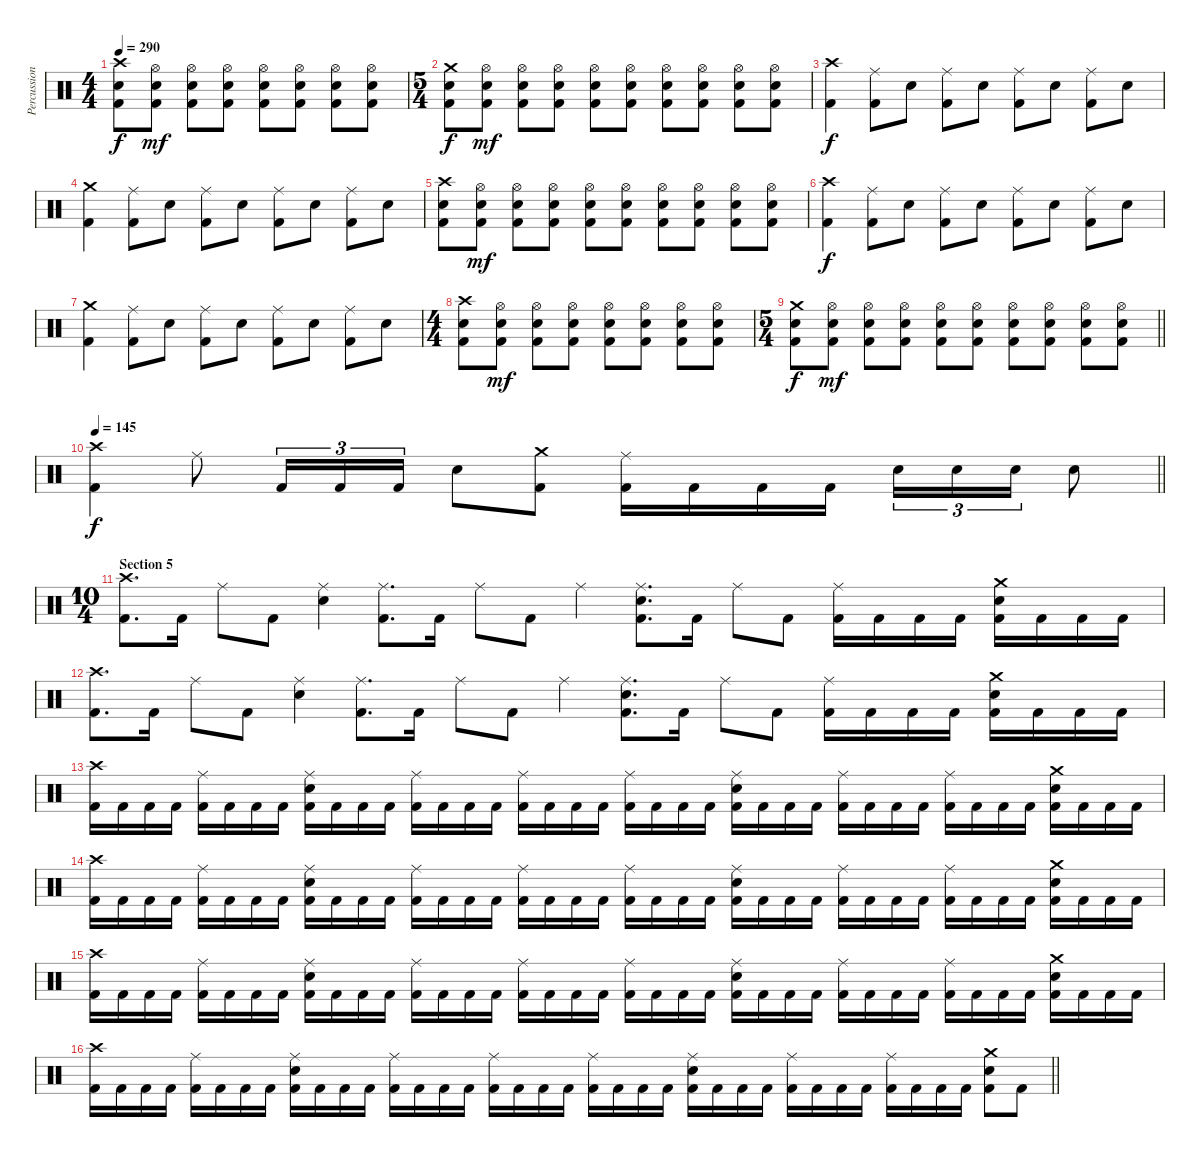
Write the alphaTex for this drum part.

\track ("Percussion" "Percussion") {instrument percussion}
\staff {score}
\articulation defaults
\ts (4 4)
\tempo 290
\clef neutral
\ks c
("Crash high (hit)" "Electric Snare (hit)" "Kick (hit) 2").8{dy f} ("Hi-Hat (open)" "Electric Snare (hit)" "Kick (hit) 2").8{dy mf} ("Hi-Hat (open)" "Electric Snare (hit)" "Kick (hit) 2").8 ("Hi-Hat (open)" "Electric Snare (hit)" "Kick (hit) 2").8 ("Hi-Hat (open)" "Electric Snare (hit)" "Kick (hit) 2").8 ("Hi-Hat (open)" "Electric Snare (hit)" "Kick (hit) 2").8 ("Hi-Hat (open)" "Electric Snare (hit)" "Kick (hit) 2").8 ("Hi-Hat (open)" "Electric Snare (hit)" "Kick (hit) 2").8 |
\ts (5 4)
("Crash medium (hit)" "Electric Snare (hit)" "Kick (hit) 2").8{dy f} ("Hi-Hat (open)" "Electric Snare (hit)" "Kick (hit) 2").8{dy mf} ("Hi-Hat (open)" "Electric Snare (hit)" "Kick (hit) 2").8 ("Hi-Hat (open)" "Electric Snare (hit)" "Kick (hit) 2").8 ("Hi-Hat (open)" "Electric Snare (hit)" "Kick (hit) 2").8 ("Hi-Hat (open)" "Electric Snare (hit)" "Kick (hit) 2").8 ("Hi-Hat (open)" "Electric Snare (hit)" "Kick (hit) 2").8 ("Hi-Hat (open)" "Electric Snare (hit)" "Kick (hit) 2").8 ("Hi-Hat (open)" "Electric Snare (hit)" "Kick (hit) 2").8 ("Hi-Hat (open)" "Electric Snare (hit)" "Kick (hit) 2").8 |
("Crash high (hit)" "Kick (hit) 2").4{dy f} ("Ride (middle)" "Kick (hit) 2").8 "Electric Snare (hit)".8 ("Ride (middle)" "Kick (hit) 2").8 "Electric Snare (hit)".8 ("Ride (middle)" "Kick (hit) 2").8 "Electric Snare (hit)".8 ("Ride (middle)" "Kick (hit) 2").8 "Electric Snare (hit)".8 |
("Crash medium (hit)" "Kick (hit) 2").4 ("Ride (middle)" "Kick (hit) 2").8 "Electric Snare (hit)".8 ("Ride (middle)" "Kick (hit) 2").8 "Electric Snare (hit)".8 ("Ride (middle)" "Kick (hit) 2").8 "Electric Snare (hit)".8 ("Ride (middle)" "Kick (hit) 2").8 "Electric Snare (hit)".8 |
("Crash high (hit)" "Electric Snare (hit)" "Kick (hit) 2").8 ("Hi-Hat (open)" "Electric Snare (hit)" "Kick (hit) 2").8{dy mf} ("Hi-Hat (open)" "Electric Snare (hit)" "Kick (hit) 2").8 ("Hi-Hat (open)" "Electric Snare (hit)" "Kick (hit) 2").8 ("Hi-Hat (open)" "Electric Snare (hit)" "Kick (hit) 2").8 ("Hi-Hat (open)" "Electric Snare (hit)" "Kick (hit) 2").8 ("Hi-Hat (open)" "Electric Snare (hit)" "Kick (hit) 2").8 ("Hi-Hat (open)" "Electric Snare (hit)" "Kick (hit) 2").8 ("Hi-Hat (open)" "Electric Snare (hit)" "Kick (hit) 2").8 ("Hi-Hat (open)" "Electric Snare (hit)" "Kick (hit) 2").8 |
("Crash high (hit)" "Kick (hit) 2").4{dy f} ("Ride (middle)" "Kick (hit) 2").8 "Electric Snare (hit)".8 ("Ride (middle)" "Kick (hit) 2").8 "Electric Snare (hit)".8 ("Ride (middle)" "Kick (hit) 2").8 "Electric Snare (hit)".8 ("Ride (middle)" "Kick (hit) 2").8 "Electric Snare (hit)".8 |
("Crash medium (hit)" "Kick (hit) 2").4 ("Ride (middle)" "Kick (hit) 2").8 "Electric Snare (hit)".8 ("Ride (middle)" "Kick (hit) 2").8 "Electric Snare (hit)".8 ("Ride (middle)" "Kick (hit) 2").8 "Electric Snare (hit)".8 ("Ride (middle)" "Kick (hit) 2").8 "Electric Snare (hit)".8 |
\ts (4 4)
("Crash high (hit)" "Electric Snare (hit)" "Kick (hit) 2").8 ("Hi-Hat (open)" "Electric Snare (hit)" "Kick (hit) 2").8{dy mf} ("Hi-Hat (open)" "Electric Snare (hit)" "Kick (hit) 2").8 ("Hi-Hat (open)" "Electric Snare (hit)" "Kick (hit) 2").8 ("Hi-Hat (open)" "Electric Snare (hit)" "Kick (hit) 2").8 ("Hi-Hat (open)" "Electric Snare (hit)" "Kick (hit) 2").8 ("Hi-Hat (open)" "Electric Snare (hit)" "Kick (hit) 2").8 ("Hi-Hat (open)" "Electric Snare (hit)" "Kick (hit) 2").8 |
\ts (5 4)
\barLineRight lightlight
("Crash medium (hit)" "Electric Snare (hit)" "Kick (hit) 2").8{dy f} ("Hi-Hat (open)" "Electric Snare (hit)" "Kick (hit) 2").8{dy mf} ("Hi-Hat (open)" "Electric Snare (hit)" "Kick (hit) 2").8 ("Hi-Hat (open)" "Electric Snare (hit)" "Kick (hit) 2").8 ("Hi-Hat (open)" "Electric Snare (hit)" "Kick (hit) 2").8 ("Hi-Hat (open)" "Electric Snare (hit)" "Kick (hit) 2").8 ("Hi-Hat (open)" "Electric Snare (hit)" "Kick (hit) 2").8 ("Hi-Hat (open)" "Electric Snare (hit)" "Kick (hit) 2").8 ("Hi-Hat (open)" "Electric Snare (hit)" "Kick (hit) 2").8 ("Hi-Hat (open)" "Electric Snare (hit)" "Kick (hit) 2").8 |
\section ("" "")
\tempo 145
\barLineRight lightlight
("Crash high (hit)" "Kick (hit) 2").4{dy f} "Ride (middle)".8 "Kick (hit) 2".16{tu (3 2)} "Kick (hit) 2".16{tu (3 2)} "Kick (hit) 2".16{tu (3 2)} "Electric Snare (hit)".8 ("Crash medium (hit)" "Kick (hit) 2").8 ("Ride (middle)" "Kick (hit) 2").16 "Kick (hit) 2".16 "Kick (hit) 2".16 "Kick (hit) 2".16 "Electric Snare (hit)".16{tu (3 2)} "Electric Snare (hit)".16{tu (3 2)} "Electric Snare (hit)".16{tu (3 2)} "Electric Snare (hit)".8 |
\ts (10 4)
\section ("" "Section 5")
("Crash high (hit)" "Kick (hit) 2").8{d} "Kick (hit) 2".16 "Ride (middle)".8 "Kick (hit) 2".8 ("Ride (middle)" "Electric Snare (hit)").4 ("Ride (middle)" "Kick (hit) 2").8{d} "Kick (hit) 2".16 "Ride (middle)".8 "Kick (hit) 2".8 "Ride (middle)".4 ("Ride (middle)" "Electric Snare (hit)" "Kick (hit) 2").8{d} "Kick (hit) 2".16 "Ride (middle)".8 "Kick (hit) 2".8 ("Ride (middle)" "Kick (hit) 2").16 "Kick (hit) 2".16 "Kick (hit) 2".16 "Kick (hit) 2".16 ("Crash medium (hit)" "Electric Snare (hit)" "Kick (hit) 2").16 "Kick (hit) 2".16 "Kick (hit) 2".16 "Kick (hit) 2".16 |
("Crash high (hit)" "Kick (hit) 2").8{d} "Kick (hit) 2".16 "Ride (middle)".8 "Kick (hit) 2".8 ("Ride (middle)" "Electric Snare (hit)").4 ("Ride (middle)" "Kick (hit) 2").8{d} "Kick (hit) 2".16 "Ride (middle)".8 "Kick (hit) 2".8 "Ride (middle)".4 ("Ride (middle)" "Electric Snare (hit)" "Kick (hit) 2").8{d} "Kick (hit) 2".16 "Ride (middle)".8 "Kick (hit) 2".8 ("Ride (middle)" "Kick (hit) 2").16 "Kick (hit) 2".16 "Kick (hit) 2".16 "Kick (hit) 2".16 ("Crash medium (hit)" "Electric Snare (hit)" "Kick (hit) 2").16 "Kick (hit) 2".16 "Kick (hit) 2".16 "Kick (hit) 2".16 |
("Crash high (hit)" "Kick (hit) 2").16 "Kick (hit) 2".16 "Kick (hit) 2".16 "Kick (hit) 2".16 ("Ride (middle)" "Kick (hit) 2").16 "Kick (hit) 2".16 "Kick (hit) 2".16 "Kick (hit) 2".16 ("Ride (middle)" "Electric Snare (hit)" "Kick (hit) 2").16 "Kick (hit) 2".16 "Kick (hit) 2".16 "Kick (hit) 2".16 ("Ride (middle)" "Kick (hit) 2").16 "Kick (hit) 2".16 "Kick (hit) 2".16 "Kick (hit) 2".16 ("Ride (middle)" "Kick (hit) 2").16 "Kick (hit) 2".16 "Kick (hit) 2".16 "Kick (hit) 2".16 ("Ride (middle)" "Kick (hit) 2").16 "Kick (hit) 2".16 "Kick (hit) 2".16 "Kick (hit) 2".16 ("Ride (middle)" "Electric Snare (hit)" "Kick (hit) 2").16 "Kick (hit) 2".16 "Kick (hit) 2".16 "Kick (hit) 2".16 ("Ride (middle)" "Kick (hit) 2").16 "Kick (hit) 2".16 "Kick (hit) 2".16 "Kick (hit) 2".16 ("Ride (middle)" "Kick (hit) 2").16 "Kick (hit) 2".16 "Kick (hit) 2".16 "Kick (hit) 2".16 ("Crash medium (hit)" "Electric Snare (hit)" "Kick (hit) 2").16 "Kick (hit) 2".16 "Kick (hit) 2".16 "Kick (hit) 2".16 |
("Crash high (hit)" "Kick (hit) 2").16 "Kick (hit) 2".16 "Kick (hit) 2".16 "Kick (hit) 2".16 ("Ride (middle)" "Kick (hit) 2").16 "Kick (hit) 2".16 "Kick (hit) 2".16 "Kick (hit) 2".16 ("Ride (middle)" "Electric Snare (hit)" "Kick (hit) 2").16 "Kick (hit) 2".16 "Kick (hit) 2".16 "Kick (hit) 2".16 ("Ride (middle)" "Kick (hit) 2").16 "Kick (hit) 2".16 "Kick (hit) 2".16 "Kick (hit) 2".16 ("Ride (middle)" "Kick (hit) 2").16 "Kick (hit) 2".16 "Kick (hit) 2".16 "Kick (hit) 2".16 ("Ride (middle)" "Kick (hit) 2").16 "Kick (hit) 2".16 "Kick (hit) 2".16 "Kick (hit) 2".16 ("Ride (middle)" "Electric Snare (hit)" "Kick (hit) 2").16 "Kick (hit) 2".16 "Kick (hit) 2".16 "Kick (hit) 2".16 ("Ride (middle)" "Kick (hit) 2").16 "Kick (hit) 2".16 "Kick (hit) 2".16 "Kick (hit) 2".16 ("Ride (middle)" "Kick (hit) 2").16 "Kick (hit) 2".16 "Kick (hit) 2".16 "Kick (hit) 2".16 ("Crash medium (hit)" "Electric Snare (hit)" "Kick (hit) 2").16 "Kick (hit) 2".16 "Kick (hit) 2".16 "Kick (hit) 2".16 |
("Crash high (hit)" "Kick (hit) 2").16 "Kick (hit) 2".16 "Kick (hit) 2".16 "Kick (hit) 2".16 ("Ride (middle)" "Kick (hit) 2").16 "Kick (hit) 2".16 "Kick (hit) 2".16 "Kick (hit) 2".16 ("Ride (middle)" "Electric Snare (hit)" "Kick (hit) 2").16 "Kick (hit) 2".16 "Kick (hit) 2".16 "Kick (hit) 2".16 ("Ride (middle)" "Kick (hit) 2").16 "Kick (hit) 2".16 "Kick (hit) 2".16 "Kick (hit) 2".16 ("Ride (middle)" "Kick (hit) 2").16 "Kick (hit) 2".16 "Kick (hit) 2".16 "Kick (hit) 2".16 ("Ride (middle)" "Kick (hit) 2").16 "Kick (hit) 2".16 "Kick (hit) 2".16 "Kick (hit) 2".16 ("Ride (middle)" "Electric Snare (hit)" "Kick (hit) 2").16 "Kick (hit) 2".16 "Kick (hit) 2".16 "Kick (hit) 2".16 ("Ride (middle)" "Kick (hit) 2").16 "Kick (hit) 2".16 "Kick (hit) 2".16 "Kick (hit) 2".16 ("Ride (middle)" "Kick (hit) 2").16 "Kick (hit) 2".16 "Kick (hit) 2".16 "Kick (hit) 2".16 ("Crash medium (hit)" "Electric Snare (hit)" "Kick (hit) 2").16 "Kick (hit) 2".16 "Kick (hit) 2".16 "Kick (hit) 2".16 |
\barLineRight lightlight
("Crash high (hit)" "Kick (hit) 2").16 "Kick (hit) 2".16 "Kick (hit) 2".16 "Kick (hit) 2".16 ("Ride (middle)" "Kick (hit) 2").16 "Kick (hit) 2".16 "Kick (hit) 2".16 "Kick (hit) 2".16 ("Ride (middle)" "Electric Snare (hit)" "Kick (hit) 2").16 "Kick (hit) 2".16 "Kick (hit) 2".16 "Kick (hit) 2".16 ("Ride (middle)" "Kick (hit) 2").16 "Kick (hit) 2".16 "Kick (hit) 2".16 "Kick (hit) 2".16 ("Ride (middle)" "Kick (hit) 2").16 "Kick (hit) 2".16 "Kick (hit) 2".16 "Kick (hit) 2".16 ("Ride (middle)" "Kick (hit) 2").16 "Kick (hit) 2".16 "Kick (hit) 2".16 "Kick (hit) 2".16 ("Ride (middle)" "Electric Snare (hit)" "Kick (hit) 2").16 "Kick (hit) 2".16 "Kick (hit) 2".16 "Kick (hit) 2".16 ("Ride (middle)" "Kick (hit) 2").16 "Kick (hit) 2".16 "Kick (hit) 2".16 "Kick (hit) 2".16 ("Ride (middle)" "Kick (hit) 2").16 "Kick (hit) 2".16 "Kick (hit) 2".16 "Kick (hit) 2".16 ("Crash medium (hit)" "Electric Snare (hit)" "Kick (hit) 2").8 "Kick (hit) 2".8
